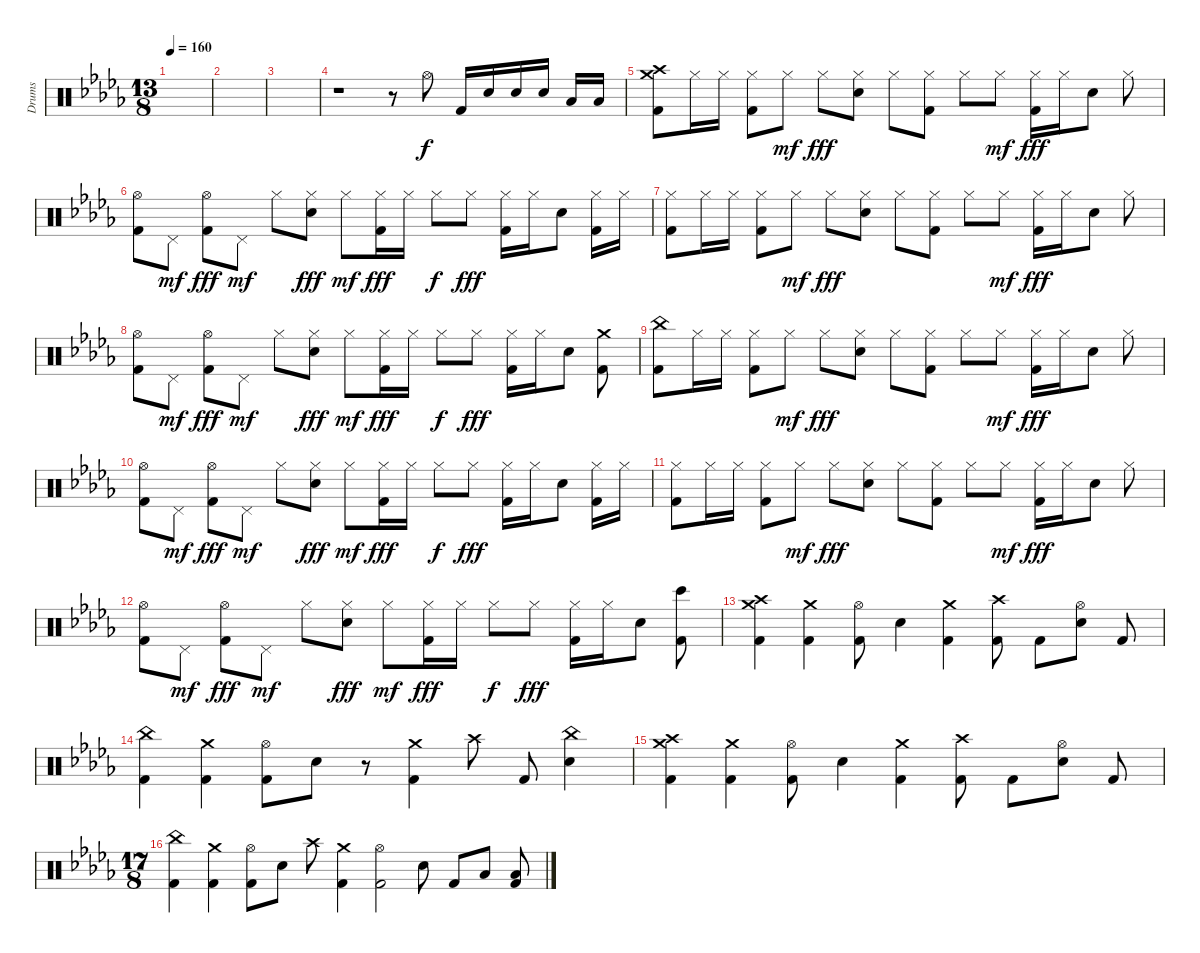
\track ("Drums" "Drums") {instrument percussion}
\staff {score}
\articulation defaults
\ts (13 8)
\tempo 160
\clef neutral
\ks bbminor
|
|
|
r.1 r.8 "Hi-Hat (open)".8 "Kick (hit) 2".16 "Snare (hit) 2".16 "Snare (hit) 2".16 "Snare (hit) 2".16 "Low Floor Tom (hit)".16 "Low Floor Tom (hit)".16 |
("Crash high (hit)" "Crash medium (hit)" "Kick (hit) 2").8 "Hi-Hat (closed)".16 "Hi-Hat (closed)".16 ("Hi-Hat (closed)" "Kick (hit) 2").8 "Hi-Hat (closed)".8{dy mf} "Hi-Hat (closed)".8{dy fff} ("Hi-Hat (closed)" "Snare (hit) 2").8 "Hi-Hat (closed)".8 ("Hi-Hat (closed)" "Kick (hit) 2").8 "Hi-Hat (closed)".8 "Hi-Hat (closed)".8{dy mf} ("Hi-Hat (closed)" "Kick (hit) 2").16{dy fff} "Hi-Hat (closed)".16 "Snare (hit) 2".8 "Hi-Hat (closed)".8 |
("Hi-Hat (open)" "Kick (hit) 2").8 "Pedal Hi-Hat (hit)".8{dy mf} ("Hi-Hat (open)" "Kick (hit) 2").8{dy fff} "Pedal Hi-Hat (hit)".8{dy mf} "Hi-Hat (closed)".8 ("Hi-Hat (closed)" "Snare (hit) 2").8{dy fff} "Hi-Hat (closed)".8{dy mf} ("Hi-Hat (closed)" "Kick (hit) 2").16{dy fff} "Hi-Hat (closed)".16 "Hi-Hat (closed)".8{dy f} "Hi-Hat (closed)".8{dy fff} ("Hi-Hat (closed)" "Kick (hit) 2").16 "Hi-Hat (closed)".16 "Snare (hit) 2".8 ("Hi-Hat (closed)" "Kick (hit) 2").16 "Hi-Hat (closed)".16 |
("Hi-Hat (closed)" "Kick (hit) 2").8 "Hi-Hat (closed)".16 "Hi-Hat (closed)".16 ("Hi-Hat (closed)" "Kick (hit) 2").8 "Hi-Hat (closed)".8{dy mf} "Hi-Hat (closed)".8{dy fff} ("Hi-Hat (closed)" "Snare (hit) 2").8 "Hi-Hat (closed)".8 ("Hi-Hat (closed)" "Kick (hit) 2").8 "Hi-Hat (closed)".8 "Hi-Hat (closed)".8{dy mf} ("Hi-Hat (closed)" "Kick (hit) 2").16{dy fff} "Hi-Hat (closed)".16 "Snare (hit) 2".8 "Hi-Hat (closed)".8 |
("Hi-Hat (open)" "Kick (hit) 2").8 "Pedal Hi-Hat (hit)".8{dy mf} ("Hi-Hat (open)" "Kick (hit) 2").8{dy fff} "Pedal Hi-Hat (hit)".8{dy mf} "Hi-Hat (closed)".8 ("Hi-Hat (closed)" "Snare (hit) 2").8{dy fff} "Hi-Hat (closed)".8{dy mf} ("Hi-Hat (closed)" "Kick (hit) 2").16{dy fff} "Hi-Hat (closed)".16 "Hi-Hat (closed)".8{dy f} "Hi-Hat (closed)".8{dy fff} ("Hi-Hat (closed)" "Kick (hit) 2").16 "Hi-Hat (closed)".16 "Snare (hit) 2".8 ("Crash medium (hit)" "Kick (hit) 2").8 |
("China (hit)" "Kick (hit) 2").8 "Hi-Hat (closed)".16 "Hi-Hat (closed)".16 ("Hi-Hat (closed)" "Kick (hit) 2").8 "Hi-Hat (closed)".8{dy mf} "Hi-Hat (closed)".8{dy fff} ("Hi-Hat (closed)" "Snare (hit) 2").8 "Hi-Hat (closed)".8 ("Hi-Hat (closed)" "Kick (hit) 2").8 "Hi-Hat (closed)".8 "Hi-Hat (closed)".8{dy mf} ("Hi-Hat (closed)" "Kick (hit) 2").16{dy fff} "Hi-Hat (closed)".16 "Snare (hit) 2".8 "Hi-Hat (closed)".8 |
("Hi-Hat (open)" "Kick (hit) 2").8 "Pedal Hi-Hat (hit)".8{dy mf} ("Hi-Hat (open)" "Kick (hit) 2").8{dy fff} "Pedal Hi-Hat (hit)".8{dy mf} "Hi-Hat (closed)".8 ("Hi-Hat (closed)" "Snare (hit) 2").8{dy fff} "Hi-Hat (closed)".8{dy mf} ("Hi-Hat (closed)" "Kick (hit) 2").16{dy fff} "Hi-Hat (closed)".16 "Hi-Hat (closed)".8{dy f} "Hi-Hat (closed)".8{dy fff} ("Hi-Hat (closed)" "Kick (hit) 2").16 "Hi-Hat (closed)".16 "Snare (hit) 2".8 ("Hi-Hat (closed)" "Kick (hit) 2").16 "Hi-Hat (closed)".16 |
("Hi-Hat (closed)" "Kick (hit) 2").8 "Hi-Hat (closed)".16 "Hi-Hat (closed)".16 ("Hi-Hat (closed)" "Kick (hit) 2").8 "Hi-Hat (closed)".8{dy mf} "Hi-Hat (closed)".8{dy fff} ("Hi-Hat (closed)" "Snare (hit) 2").8 "Hi-Hat (closed)".8 ("Hi-Hat (closed)" "Kick (hit) 2").8 "Hi-Hat (closed)".8 "Hi-Hat (closed)".8{dy mf} ("Hi-Hat (closed)" "Kick (hit) 2").16{dy fff} "Hi-Hat (closed)".16 "Snare (hit) 2".8 "Hi-Hat (closed)".8 |
("Hi-Hat (open)" "Kick (hit) 2").8 "Pedal Hi-Hat (hit)".8{dy mf} ("Hi-Hat (open)" "Kick (hit) 2").8{dy fff} "Pedal Hi-Hat (hit)".8{dy mf} "Hi-Hat (closed)".8 ("Hi-Hat (closed)" "Snare (hit) 2").8{dy fff} "Hi-Hat (closed)".8{dy mf} ("Hi-Hat (closed)" "Kick (hit) 2").16{dy fff} "Hi-Hat (closed)".16 "Hi-Hat (closed)".8{dy f} "Hi-Hat (closed)".8{dy fff} ("Hi-Hat (closed)" "Kick (hit) 2").16 "Hi-Hat (closed)".16 "Snare (hit) 2".8 ("Bongo High (hit)" "Kick (hit) 2").8 |
("Crash high (hit)" "Crash medium (hit)" "Kick (hit) 2").4 ("Crash medium (hit)" "Kick (hit) 2").4 ("Hi-Hat (open)" "Kick (hit) 2").8 "Snare (hit) 2".4 ("Crash medium (hit)" "Kick (hit) 2").4 ("Crash high (hit)" "Kick (hit) 2").8 "Kick (hit) 2".8 ("Hi-Hat (open)" "Snare (hit) 2").8 "Kick (hit) 2".8 |
("China (hit)" "Kick (hit) 2").4 ("Crash medium (hit)" "Kick (hit) 2").4 ("Hi-Hat (open)" "Kick (hit) 2").8 "Snare (hit) 2".8 r.8 ("Crash medium (hit)" "Kick (hit) 2").4 "Crash high (hit)".8 "Kick (hit) 2".8 ("China (hit)" "Snare (hit) 2").4 |
("Crash high (hit)" "Crash medium (hit)" "Kick (hit) 2").4 ("Crash medium (hit)" "Kick (hit) 2").4 ("Hi-Hat (open)" "Kick (hit) 2").8 "Snare (hit) 2".4 ("Crash medium (hit)" "Kick (hit) 2").4 ("Crash high (hit)" "Kick (hit) 2").8 "Kick (hit) 2".8 ("Hi-Hat (open)" "Snare (hit) 2").8 "Kick (hit) 2".8 |
\ts (17 8)
("China (hit)" "Kick (hit) 2").4 ("Crash medium (hit)" "Kick (hit) 2").4 ("Hi-Hat (open)" "Kick (hit) 2").8 "Snare (hit) 2".8 "Crash high (hit)".8 ("Crash medium (hit)" "Kick (hit) 2").4 ("Hi-Hat (open)" "Kick (hit) 2").2 "Snare (hit) 2".8 "Kick (hit) 2".8 "Low Floor Tom (hit)".8 ("Low Floor Tom (hit)" "Kick (hit) 2").8
